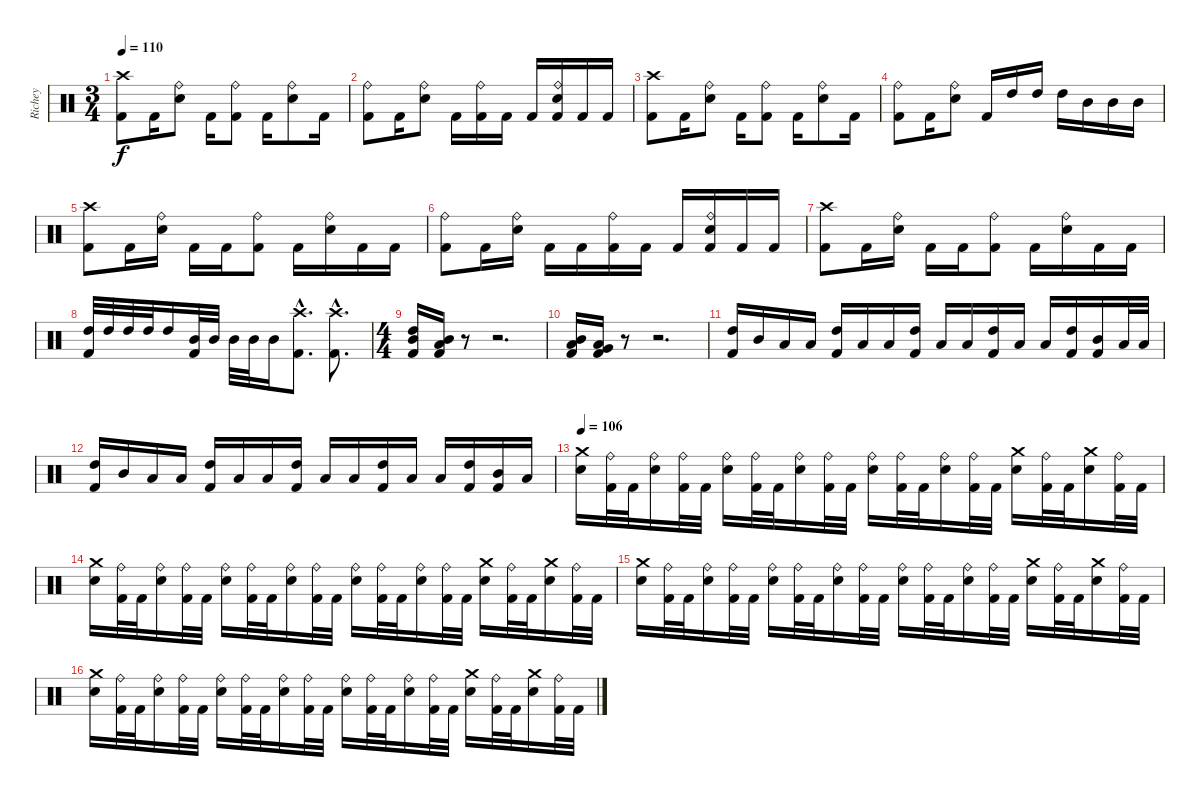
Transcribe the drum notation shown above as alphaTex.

\track ("Richey" "Richey") {instrument percussion}
\staff {score}
\articulation defaults
\ts (3 4)
\tempo 110
\clef neutral
\ks c
("Crash high (hit)" "Kick (hit) 2").8{dy f} "Kick (hit) 2".16 ("Ride (bell)" "Snare (hit) 2").8 "Kick (hit) 2".16 ("Ride (bell)" "Kick (hit) 2").8 "Kick (hit) 2".16 ("Ride (bell)" "Snare (hit) 2").8 "Kick (hit) 2".16 |
("Ride (bell)" "Kick (hit) 2").8 "Kick (hit) 2".16 ("Ride (bell)" "Snare (hit) 2").8 "Kick (hit) 2".16 ("Ride (bell)" "Kick (hit) 2").16 "Kick (hit) 2".16 "Kick (hit) 2".16 ("Ride (bell)" "Snare (hit) 2" "Kick (hit) 2").16 "Kick (hit) 2".16 "Kick (hit) 2".16 |
("Crash high (hit)" "Kick (hit) 2").8 "Kick (hit) 2".16 ("Ride (bell)" "Snare (hit) 2").8 "Kick (hit) 2".16 ("Ride (bell)" "Kick (hit) 2").8 "Kick (hit) 2".16 ("Ride (bell)" "Snare (hit) 2").8 "Kick (hit) 2".16 |
("Ride (bell)" "Kick (hit) 2").8 "Kick (hit) 2".16 ("Ride (bell)" "Snare (hit) 2").8 "Kick (hit) 2".16 "High Tom (hit)".16 "High Tom (hit)".16 "High Tom (hit)".16 "Mid Tom (hit)".16 "Mid Tom (hit)".16 "Mid Tom (hit)".16 |
("Crash high (hit)" "Kick (hit) 2").8 "Kick (hit) 2".16 ("Ride (bell)" "Snare (hit) 2").16 "Kick (hit) 2".16 "Kick (hit) 2".16 ("Ride (bell)" "Kick (hit) 2").8 "Kick (hit) 2".16 ("Ride (bell)" "Snare (hit) 2").16 "Kick (hit) 2".16 "Kick (hit) 2".16 |
("Ride (bell)" "Kick (hit) 2").8 "Kick (hit) 2".16 ("Ride (bell)" "Snare (hit) 2").16 "Kick (hit) 2".16 "Kick (hit) 2".16 ("Ride (bell)" "Kick (hit) 2").16 "Kick (hit) 2".16 "Kick (hit) 2".16 ("Ride (bell)" "Snare (hit) 2" "Kick (hit) 2").16 "Kick (hit) 2".16 "Kick (hit) 2".16 |
("Crash high (hit)" "Kick (hit) 2").8 "Kick (hit) 2".16 ("Ride (bell)" "Snare (hit) 2").16 "Kick (hit) 2".16 "Kick (hit) 2".16 ("Ride (bell)" "Kick (hit) 2").8 "Kick (hit) 2".16 ("Ride (bell)" "Snare (hit) 2").16 "Kick (hit) 2".16 "Kick (hit) 2".16 |
("High Tom (hit)" "Kick (hit) 2").32 "High Tom (hit)".32 "High Tom (hit)".32 "High Tom (hit)".32 "High Tom (hit)".16 ("Mid Tom (hit)" "Kick (hit) 2").32 "Mid Tom (hit)".32 "Mid Tom (hit)".32 "Mid Tom (hit)".32 "Mid Tom (hit)".16 ("Crash high (hit)"{hac} "Kick (hit) 2"{hac}).8{d} ("Crash high (hit)"{hac} "Kick (hit) 2"{hac}).8{d} |
\ts (4 4)
("High Tom (hit)" "Mid Tom (hit)" "Kick (hit) 2").16 ("Mid Tom (hit)" "Low Tom (hit)" "Kick (hit) 2").16 r.8 r.2{d} |
("Mid Tom (hit)" "Low Tom (hit)" "Kick (hit) 2").16 ("Low Tom (hit)" "Very Low Tom (hit)" "Kick (hit) 2").16 r.8 r.2{d} |
("High Tom (hit)" "Kick (hit) 2").16 "Mid Tom (hit)".16 "Low Tom (hit)".16 "Low Tom (hit)".16 ("High Tom (hit)" "Kick (hit) 2").16 "Low Tom (hit)".16 "Low Tom (hit)".16 ("High Tom (hit)" "Kick (hit) 2").16 "Low Tom (hit)".16 "Low Tom (hit)".16 ("High Tom (hit)" "Kick (hit) 2").16 "Low Tom (hit)".16 "Low Tom (hit)".16 ("High Tom (hit)" "Kick (hit) 2").16 ("Mid Tom (hit)" "Kick (hit) 2").16 "Low Tom (hit)".32 "Low Tom (hit)".32 |
("High Tom (hit)" "Kick (hit) 2").16 "Mid Tom (hit)".16 "Low Tom (hit)".16 "Low Tom (hit)".16 ("High Tom (hit)" "Kick (hit) 2").16 "Low Tom (hit)".16 "Low Tom (hit)".16 ("High Tom (hit)" "Kick (hit) 2").16 "Low Tom (hit)".16 "Low Tom (hit)".16 ("High Tom (hit)" "Kick (hit) 2").16 "Low Tom (hit)".16 "Low Tom (hit)".16 ("High Tom (hit)" "Kick (hit) 2").16 ("Mid Tom (hit)" "Kick (hit) 2").16 "Low Tom (hit)".16 |
\tempo 106
("Crash medium (hit)" "Snare (hit) 2").16 ("Ride (bell)" "Kick (hit) 2").32 "Kick (hit) 2".32 ("Ride (bell)" "Snare (hit) 2").16 ("Ride (bell)" "Kick (hit) 2").32 "Kick (hit) 2".32 ("Ride (bell)" "Snare (hit) 2").16 ("Ride (bell)" "Kick (hit) 2").32 "Kick (hit) 2".32 ("Ride (bell)" "Snare (hit) 2").16 ("Ride (bell)" "Kick (hit) 2").32 "Kick (hit) 2".32 ("Ride (bell)" "Snare (hit) 2").16 ("Ride (bell)" "Kick (hit) 2").32 "Kick (hit) 2".32 ("Ride (bell)" "Snare (hit) 2").16 ("Ride (bell)" "Kick (hit) 2").32 "Kick (hit) 2".32 ("Crash medium (hit)" "Snare (hit) 2").16 ("Ride (bell)" "Kick (hit) 2").32 "Kick (hit) 2".32 ("Crash medium (hit)" "Snare (hit) 2").16 ("Ride (bell)" "Kick (hit) 2").32 "Kick (hit) 2".32 |
("Crash medium (hit)" "Snare (hit) 2").16 ("Ride (bell)" "Kick (hit) 2").32 "Kick (hit) 2".32 ("Ride (bell)" "Snare (hit) 2").16 ("Ride (bell)" "Kick (hit) 2").32 "Kick (hit) 2".32 ("Ride (bell)" "Snare (hit) 2").16 ("Ride (bell)" "Kick (hit) 2").32 "Kick (hit) 2".32 ("Ride (bell)" "Snare (hit) 2").16 ("Ride (bell)" "Kick (hit) 2").32 "Kick (hit) 2".32 ("Ride (bell)" "Snare (hit) 2").16 ("Ride (bell)" "Kick (hit) 2").32 "Kick (hit) 2".32 ("Ride (bell)" "Snare (hit) 2").16 ("Ride (bell)" "Kick (hit) 2").32 "Kick (hit) 2".32 ("Crash medium (hit)" "Snare (hit) 2").16 ("Ride (bell)" "Kick (hit) 2").32 "Kick (hit) 2".32 ("Crash medium (hit)" "Snare (hit) 2").16 ("Ride (bell)" "Kick (hit) 2").32 "Kick (hit) 2".32 |
("Crash medium (hit)" "Snare (hit) 2").16 ("Ride (bell)" "Kick (hit) 2").32 "Kick (hit) 2".32 ("Ride (bell)" "Snare (hit) 2").16 ("Ride (bell)" "Kick (hit) 2").32 "Kick (hit) 2".32 ("Ride (bell)" "Snare (hit) 2").16 ("Ride (bell)" "Kick (hit) 2").32 "Kick (hit) 2".32 ("Ride (bell)" "Snare (hit) 2").16 ("Ride (bell)" "Kick (hit) 2").32 "Kick (hit) 2".32 ("Ride (bell)" "Snare (hit) 2").16 ("Ride (bell)" "Kick (hit) 2").32 "Kick (hit) 2".32 ("Ride (bell)" "Snare (hit) 2").16 ("Ride (bell)" "Kick (hit) 2").32 "Kick (hit) 2".32 ("Crash medium (hit)" "Snare (hit) 2").16 ("Ride (bell)" "Kick (hit) 2").32 "Kick (hit) 2".32 ("Crash medium (hit)" "Snare (hit) 2").16 ("Ride (bell)" "Kick (hit) 2").32 "Kick (hit) 2".32 |
("Crash medium (hit)" "Snare (hit) 2").16 ("Ride (bell)" "Kick (hit) 2").32 "Kick (hit) 2".32 ("Ride (bell)" "Snare (hit) 2").16 ("Ride (bell)" "Kick (hit) 2").32 "Kick (hit) 2".32 ("Ride (bell)" "Snare (hit) 2").16 ("Ride (bell)" "Kick (hit) 2").32 "Kick (hit) 2".32 ("Ride (bell)" "Snare (hit) 2").16 ("Ride (bell)" "Kick (hit) 2").32 "Kick (hit) 2".32 ("Ride (bell)" "Snare (hit) 2").16 ("Ride (bell)" "Kick (hit) 2").32 "Kick (hit) 2".32 ("Ride (bell)" "Snare (hit) 2").16 ("Ride (bell)" "Kick (hit) 2").32 "Kick (hit) 2".32 ("Crash medium (hit)" "Snare (hit) 2").16 ("Ride (bell)" "Kick (hit) 2").32 "Kick (hit) 2".32 ("Crash medium (hit)" "Snare (hit) 2").16 ("Ride (bell)" "Kick (hit) 2").32 "Kick (hit) 2".32
